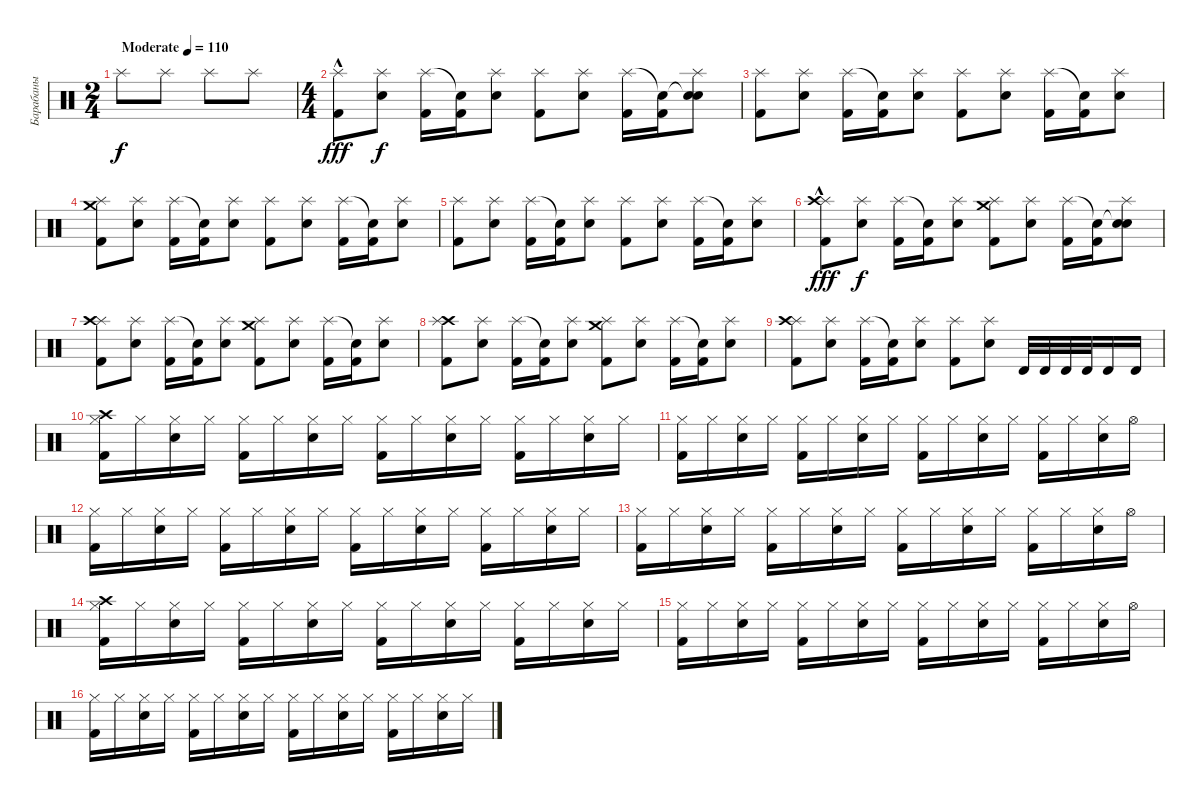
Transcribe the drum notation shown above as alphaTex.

\track ("Барабаны" "Барабаны") {instrument percussion}
\staff {score}
\articulation defaults
\ts (2 4)
\tempo (110 "Moderate")
\clef neutral
\ks c "Splash (hit)".8{dy f} "Splash (hit)".8 "Splash (hit)".8 "Splash (hit)".8
|
\ts (4 4)
("Kick (hit) 2" "Splash (hit)"{hac}).8{dy fff} ("Electric Snare (hit)" "Splash (hit)").8{dy f} ("Kick (hit) 2" "Splash (hit)").16 ("Kick (hit) 2" "Snare (hit)"{t}).16 ("Electric Snare (hit)" "Splash (hit)").8 ("Kick (hit) 2" "Splash (hit)").8 ("Electric Snare (hit)" "Splash (hit)").8 ("Kick (hit) 2" "Splash (hit)").16 ("Kick (hit) 2" "Snare (hit)"{t}).16 ("Electric Snare (hit)" "Snare (hit)"{t} "Splash (hit)").8 |
("Kick (hit) 2" "Splash (hit)").8 ("Electric Snare (hit)" "Splash (hit)").8 ("Kick (hit) 2" "Splash (hit)").16 ("Kick (hit) 2" "Snare (hit)"{t}).16 ("Electric Snare (hit)" "Splash (hit)").8 ("Kick (hit) 2" "Splash (hit)").8 ("Electric Snare (hit)" "Splash (hit)").8 ("Kick (hit) 2" "Splash (hit)").16 ("Kick (hit) 2" "Snare (hit)"{t}).16 ("Electric Snare (hit)" "Splash (hit)").8 |
("Kick (hit) 2" "Crash medium (hit)" "Splash (hit)").8 ("Electric Snare (hit)" "Splash (hit)").8 ("Kick (hit) 2" "Splash (hit)").16 ("Kick (hit) 2" "Snare (hit)"{t}).16 ("Electric Snare (hit)" "Splash (hit)").8 ("Kick (hit) 2" "Splash (hit)").8 ("Electric Snare (hit)" "Splash (hit)").8 ("Kick (hit) 2" "Splash (hit)").16 ("Kick (hit) 2" "Snare (hit)"{t}).16 ("Electric Snare (hit)" "Splash (hit)").8 |
("Kick (hit) 2" "Splash (hit)").8 ("Electric Snare (hit)" "Splash (hit)").8 ("Kick (hit) 2" "Splash (hit)").16 ("Kick (hit) 2" "Snare (hit)"{t}).16 ("Electric Snare (hit)" "Splash (hit)").8 ("Kick (hit) 2" "Splash (hit)").8 ("Electric Snare (hit)" "Splash (hit)").8 ("Kick (hit) 2" "Splash (hit)").16 ("Kick (hit) 2" "Snare (hit)"{t}).16 ("Electric Snare (hit)" "Splash (hit)").8 |
("Kick (hit) 2" "Splash (hit)"{hac} "Crash high (hit)").8{dy fff} ("Electric Snare (hit)" "Splash (hit)").8{dy f} ("Kick (hit) 2" "Splash (hit)").16 ("Kick (hit) 2" "Snare (hit)"{t}).16 ("Electric Snare (hit)" "Splash (hit)").8 ("Kick (hit) 2" "Crash medium (hit)" "Splash (hit)").8 ("Electric Snare (hit)" "Splash (hit)").8 ("Kick (hit) 2" "Splash (hit)").16 ("Kick (hit) 2" "Snare (hit)"{t}).16 ("Electric Snare (hit)" "Snare (hit)"{t} "Splash (hit)").8 |
("Kick (hit) 2" "Splash (hit)" "Crash high (hit)").8 ("Electric Snare (hit)" "Splash (hit)").8 ("Kick (hit) 2" "Splash (hit)").16 ("Kick (hit) 2" "Snare (hit)"{t}).16 ("Electric Snare (hit)" "Splash (hit)").8 ("Kick (hit) 2" "Crash medium (hit)" "Splash (hit)").8 ("Electric Snare (hit)" "Splash (hit)").8 ("Kick (hit) 2" "Splash (hit)").16 ("Kick (hit) 2" "Snare (hit)"{t}).16 ("Electric Snare (hit)" "Splash (hit)").8 |
("Kick (hit) 2" "Crash high (hit)" "Splash (hit)").8 ("Electric Snare (hit)" "Splash (hit)").8 ("Kick (hit) 2" "Splash (hit)").16 ("Kick (hit) 2" "Snare (hit)"{t}).16 ("Electric Snare (hit)" "Splash (hit)").8 ("Kick (hit) 2" "Crash medium (hit)" "Splash (hit)").8 ("Electric Snare (hit)" "Splash (hit)").8 ("Kick (hit) 2" "Splash (hit)").16 ("Kick (hit) 2" "Snare (hit)"{t}).16 ("Electric Snare (hit)" "Splash (hit)").8 |
("Kick (hit) 2" "Splash (hit)" "Crash high (hit)").8 ("Electric Snare (hit)" "Splash (hit)").8 ("Kick (hit) 2" "Splash (hit)").16 ("Kick (hit) 2" "Snare (hit)"{t}).16 ("Electric Snare (hit)" "Splash (hit)").8 ("Kick (hit) 2" "Splash (hit)").8 ("Electric Snare (hit)" "Splash (hit)").8 "Timbale high (hit)".32 "Timbale high (hit)".32 "Timbale high (hit)".32 "Timbale high (hit)".32 "Timbale high (hit)".16 "Timbale high (hit)".16 |
("Kick (hit) 2" "Crash high (hit)" "Hi-Hat (closed)").16 "Hi-Hat (closed)".16 ("Electric Snare (hit)" "Hi-Hat (closed)").16 "Hi-Hat (closed)".16 ("Kick (hit) 2" "Hi-Hat (closed)").16 "Hi-Hat (closed)".16 ("Electric Snare (hit)" "Hi-Hat (closed)").16 "Hi-Hat (closed)".16 ("Kick (hit) 2" "Hi-Hat (closed)").16 "Hi-Hat (closed)".16 ("Electric Snare (hit)" "Hi-Hat (closed)").16 "Hi-Hat (closed)".16 ("Kick (hit) 2" "Hi-Hat (closed)").16 "Hi-Hat (closed)".16 ("Electric Snare (hit)" "Hi-Hat (closed)").16 "Hi-Hat (closed)".16 |
("Kick (hit) 2" "Hi-Hat (closed)").16 "Hi-Hat (closed)".16 ("Electric Snare (hit)" "Hi-Hat (closed)").16 "Hi-Hat (closed)".16 ("Kick (hit) 2" "Hi-Hat (closed)").16 "Hi-Hat (closed)".16 ("Electric Snare (hit)" "Hi-Hat (closed)").16 "Hi-Hat (closed)".16 ("Kick (hit) 2" "Hi-Hat (closed)").16 "Hi-Hat (closed)".16 ("Electric Snare (hit)" "Hi-Hat (closed)").16 "Hi-Hat (closed)".16 ("Kick (hit) 2" "Hi-Hat (closed)").16 "Hi-Hat (closed)".16 ("Electric Snare (hit)" "Hi-Hat (closed)").16 "Hi-Hat (open)".16 |
("Kick (hit) 2" "Hi-Hat (closed)").16 "Hi-Hat (closed)".16 ("Electric Snare (hit)" "Hi-Hat (closed)").16 "Hi-Hat (closed)".16 ("Kick (hit) 2" "Hi-Hat (closed)").16 "Hi-Hat (closed)".16 ("Electric Snare (hit)" "Hi-Hat (closed)").16 "Hi-Hat (closed)".16 ("Kick (hit) 2" "Hi-Hat (closed)").16 "Hi-Hat (closed)".16 ("Electric Snare (hit)" "Hi-Hat (closed)").16 "Hi-Hat (closed)".16 ("Kick (hit) 2" "Hi-Hat (closed)").16 "Hi-Hat (closed)".16 ("Electric Snare (hit)" "Hi-Hat (closed)").16 "Hi-Hat (closed)".16 |
("Kick (hit) 2" "Hi-Hat (closed)").16 "Hi-Hat (closed)".16 ("Electric Snare (hit)" "Hi-Hat (closed)").16 "Hi-Hat (closed)".16 ("Kick (hit) 2" "Hi-Hat (closed)").16 "Hi-Hat (closed)".16 ("Electric Snare (hit)" "Hi-Hat (closed)").16 "Hi-Hat (closed)".16 ("Kick (hit) 2" "Hi-Hat (closed)").16 "Hi-Hat (closed)".16 ("Electric Snare (hit)" "Hi-Hat (closed)").16 "Hi-Hat (closed)".16 ("Kick (hit) 2" "Hi-Hat (closed)").16 "Hi-Hat (closed)".16 ("Electric Snare (hit)" "Hi-Hat (closed)").16 "Hi-Hat (open)".16 |
("Kick (hit) 2" "Crash high (hit)" "Hi-Hat (closed)").16 "Hi-Hat (closed)".16 ("Electric Snare (hit)" "Hi-Hat (closed)").16 "Hi-Hat (closed)".16 ("Kick (hit) 2" "Hi-Hat (closed)").16 "Hi-Hat (closed)".16 ("Electric Snare (hit)" "Hi-Hat (closed)").16 "Hi-Hat (closed)".16 ("Kick (hit) 2" "Hi-Hat (closed)").16 "Hi-Hat (closed)".16 ("Electric Snare (hit)" "Hi-Hat (closed)").16 "Hi-Hat (closed)".16 ("Kick (hit) 2" "Hi-Hat (closed)").16 "Hi-Hat (closed)".16 ("Electric Snare (hit)" "Hi-Hat (closed)").16 "Hi-Hat (closed)".16 |
("Kick (hit) 2" "Hi-Hat (closed)").16 "Hi-Hat (closed)".16 ("Electric Snare (hit)" "Hi-Hat (closed)").16 "Hi-Hat (closed)".16 ("Kick (hit) 2" "Hi-Hat (closed)").16 "Hi-Hat (closed)".16 ("Electric Snare (hit)" "Hi-Hat (closed)").16 "Hi-Hat (closed)".16 ("Kick (hit) 2" "Hi-Hat (closed)").16 "Hi-Hat (closed)".16 ("Electric Snare (hit)" "Hi-Hat (closed)").16 "Hi-Hat (closed)".16 ("Kick (hit) 2" "Hi-Hat (closed)").16 "Hi-Hat (closed)".16 ("Electric Snare (hit)" "Hi-Hat (closed)").16 "Hi-Hat (open)".16 |
("Kick (hit) 2" "Hi-Hat (closed)").16 "Hi-Hat (closed)".16 ("Electric Snare (hit)" "Hi-Hat (closed)").16 "Hi-Hat (closed)".16 ("Kick (hit) 2" "Hi-Hat (closed)").16 "Hi-Hat (closed)".16 ("Electric Snare (hit)" "Hi-Hat (closed)").16 "Hi-Hat (closed)".16 ("Kick (hit) 2" "Hi-Hat (closed)").16 "Hi-Hat (closed)".16 ("Electric Snare (hit)" "Hi-Hat (closed)").16 "Hi-Hat (closed)".16 ("Kick (hit) 2" "Hi-Hat (closed)").16 "Hi-Hat (closed)".16 ("Electric Snare (hit)" "Hi-Hat (closed)").16 "Hi-Hat (closed)".16
